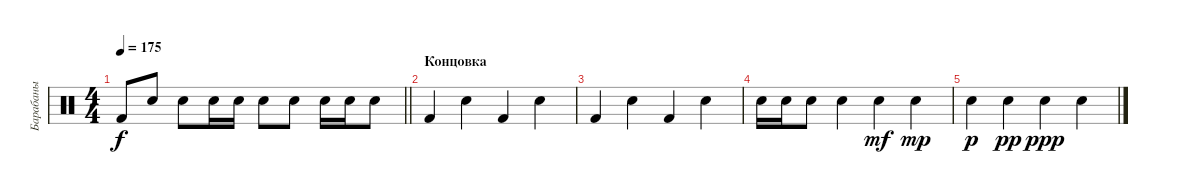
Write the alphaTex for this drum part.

\track ("Барабаны" "Барабаны") {instrument percussion}
\staff {score}
\articulation defaults
\ts (4 4)
\tempo 175
\clef neutral
\barLineRight lightlight
\ks c "Kick (hit) 2".8{dy f} "Snare (hit) 2".8 "Snare (hit) 2".8 "Snare (hit) 2".16 "Snare (hit) 2".16 "Snare (hit) 2".8 "Snare (hit) 2".8 "Snare (hit) 2".16 "Snare (hit) 2".16 "Snare (hit) 2".8
|
\section ("" "Концовка")
"Kick (hit) 2".4 "Snare (hit) 2".4 "Kick (hit) 2".4 "Snare (hit) 2".4 |
"Kick (hit) 2".4 "Snare (hit) 2".4 "Kick (hit) 2".4 "Snare (hit) 2".4 |
"Snare (hit) 2".16 "Snare (hit) 2".16 "Snare (hit) 2".8 "Snare (hit) 2".4 "Snare (hit) 2".4{dy mf} "Snare (hit) 2".4{dy mp} |
"Snare (hit) 2".4{dy p} "Snare (hit) 2".4{dy pp} "Snare (hit) 2".4{dy ppp} "Snare (hit) 2".4
